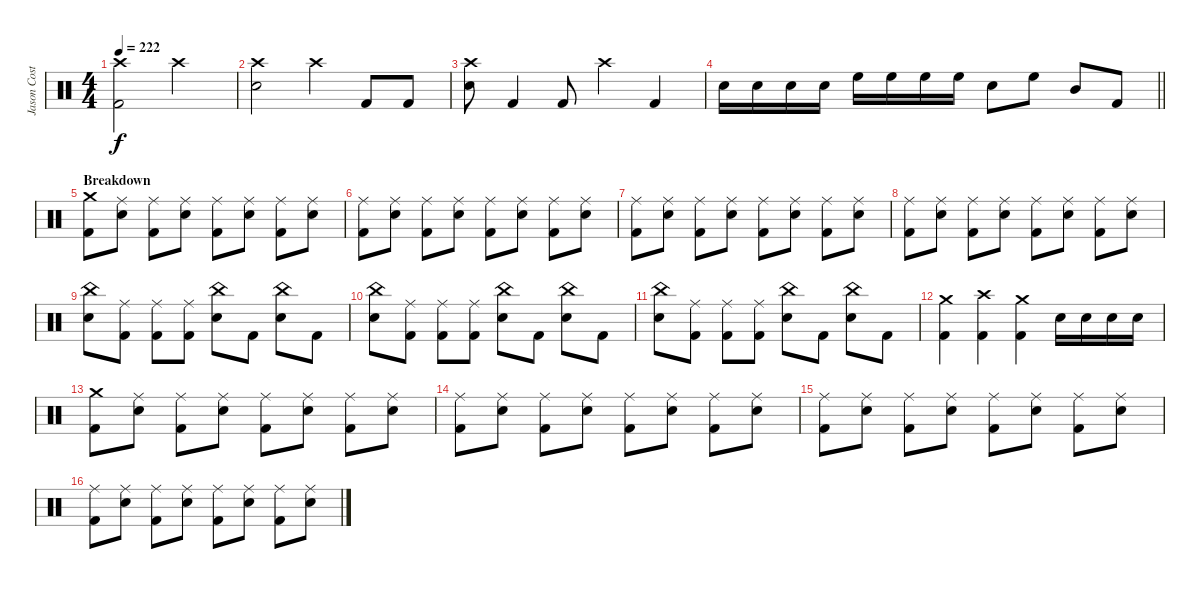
\track ("Jason Costa" "Jason Cost") {instrument percussion}
\staff {score}
\articulation defaults
\ts (4 4)
\tempo 222
\clef neutral
\ks c
("Crash high (hit)" "Kick (hit) 2").2{dy f} "Crash high (hit)".2 |
("Crash high (hit)" "Electric Snare (hit)").2 "Crash high (hit)".4 "Kick (hit) 2".8 "Kick (hit) 2".8 |
("Crash high (hit)" "Electric Snare (hit)").8 "Kick (hit) 2".4 "Kick (hit) 2".8 "Crash high (hit)".4 "Kick (hit) 2".4 |
\barLineRight lightlight "Electric Snare (hit)".16 "Electric Snare (hit)".16 "Electric Snare (hit)".16 "Electric Snare (hit)".16 "High Floor Tom (hit)".16 "High Floor Tom (hit)".16 "High Floor Tom (hit)".16 "High Floor Tom (hit)".16 "Electric Snare (hit)".8 "High Floor Tom (hit)".8 "Mid Tom (hit)".8 "Kick (hit) 2".8
|
\section ("" "Breakdown")
("Crash medium (hit)" "Kick (hit) 2").8 ("Ride (middle)" "Electric Snare (hit)").8 ("Ride (middle)" "Kick (hit) 2").8 ("Ride (middle)" "Electric Snare (hit)").8 ("Ride (middle)" "Kick (hit) 2").8 ("Ride (middle)" "Electric Snare (hit)").8 ("Ride (middle)" "Kick (hit) 2").8 ("Ride (middle)" "Electric Snare (hit)").8 |
("Ride (middle)" "Kick (hit) 2").8 ("Ride (middle)" "Electric Snare (hit)").8 ("Ride (middle)" "Kick (hit) 2").8 ("Ride (middle)" "Electric Snare (hit)").8 ("Ride (middle)" "Kick (hit) 2").8 ("Ride (middle)" "Electric Snare (hit)").8 ("Ride (middle)" "Kick (hit) 2").8 ("Ride (middle)" "Electric Snare (hit)").8 |
("Ride (middle)" "Kick (hit) 2").8 ("Ride (middle)" "Electric Snare (hit)").8 ("Ride (middle)" "Kick (hit) 2").8 ("Ride (middle)" "Electric Snare (hit)").8 ("Ride (middle)" "Kick (hit) 2").8 ("Ride (middle)" "Electric Snare (hit)").8 ("Ride (middle)" "Kick (hit) 2").8 ("Ride (middle)" "Electric Snare (hit)").8 |
("Ride (middle)" "Kick (hit) 2").8 ("Ride (middle)" "Electric Snare (hit)").8 ("Ride (middle)" "Kick (hit) 2").8 ("Ride (middle)" "Electric Snare (hit)").8 ("Ride (middle)" "Kick (hit) 2").8 ("Ride (middle)" "Electric Snare (hit)").8 ("Ride (middle)" "Kick (hit) 2").8 ("Ride (middle)" "Electric Snare (hit)").8 |
("China (hit)" "Electric Snare (hit)").8 ("Ride (middle)" "Kick (hit) 2").8 ("Ride (middle)" "Kick (hit) 2").8 ("Ride (middle)" "Kick (hit) 2").8 ("China (hit)" "Electric Snare (hit)").8 "Kick (hit) 2".8 ("China (hit)" "Electric Snare (hit)").8 "Kick (hit) 2".8 |
("China (hit)" "Electric Snare (hit)").8 ("Ride (middle)" "Kick (hit) 2").8 ("Ride (middle)" "Kick (hit) 2").8 ("Ride (middle)" "Kick (hit) 2").8 ("China (hit)" "Electric Snare (hit)").8 "Kick (hit) 2".8 ("China (hit)" "Electric Snare (hit)").8 "Kick (hit) 2".8 |
("China (hit)" "Electric Snare (hit)").8 ("Ride (middle)" "Kick (hit) 2").8 ("Ride (middle)" "Kick (hit) 2").8 ("Ride (middle)" "Kick (hit) 2").8 ("China (hit)" "Electric Snare (hit)").8 "Kick (hit) 2".8 ("China (hit)" "Electric Snare (hit)").8 "Kick (hit) 2".8 |
("Crash medium (hit)" "Kick (hit) 2").4 ("Crash high (hit)" "Kick (hit) 2").4 ("Crash medium (hit)" "Kick (hit) 2").4 "Electric Snare (hit)".16 "Electric Snare (hit)".16 "Electric Snare (hit)".16 "Electric Snare (hit)".16 |
("Crash medium (hit)" "Kick (hit) 2").8 ("Ride (middle)" "Electric Snare (hit)").8 ("Ride (middle)" "Kick (hit) 2").8 ("Ride (middle)" "Electric Snare (hit)").8 ("Ride (middle)" "Kick (hit) 2").8 ("Ride (middle)" "Electric Snare (hit)").8 ("Ride (middle)" "Kick (hit) 2").8 ("Ride (middle)" "Electric Snare (hit)").8 |
("Ride (middle)" "Kick (hit) 2").8 ("Ride (middle)" "Electric Snare (hit)").8 ("Ride (middle)" "Kick (hit) 2").8 ("Ride (middle)" "Electric Snare (hit)").8 ("Ride (middle)" "Kick (hit) 2").8 ("Ride (middle)" "Electric Snare (hit)").8 ("Ride (middle)" "Kick (hit) 2").8 ("Ride (middle)" "Electric Snare (hit)").8 |
("Ride (middle)" "Kick (hit) 2").8 ("Ride (middle)" "Electric Snare (hit)").8 ("Ride (middle)" "Kick (hit) 2").8 ("Ride (middle)" "Electric Snare (hit)").8 ("Ride (middle)" "Kick (hit) 2").8 ("Ride (middle)" "Electric Snare (hit)").8 ("Ride (middle)" "Kick (hit) 2").8 ("Ride (middle)" "Electric Snare (hit)").8 |
("Ride (middle)" "Kick (hit) 2").8 ("Ride (middle)" "Electric Snare (hit)").8 ("Ride (middle)" "Kick (hit) 2").8 ("Ride (middle)" "Electric Snare (hit)").8 ("Ride (middle)" "Kick (hit) 2").8 ("Ride (middle)" "Electric Snare (hit)").8 ("Ride (middle)" "Kick (hit) 2").8 ("Ride (middle)" "Electric Snare (hit)").8
